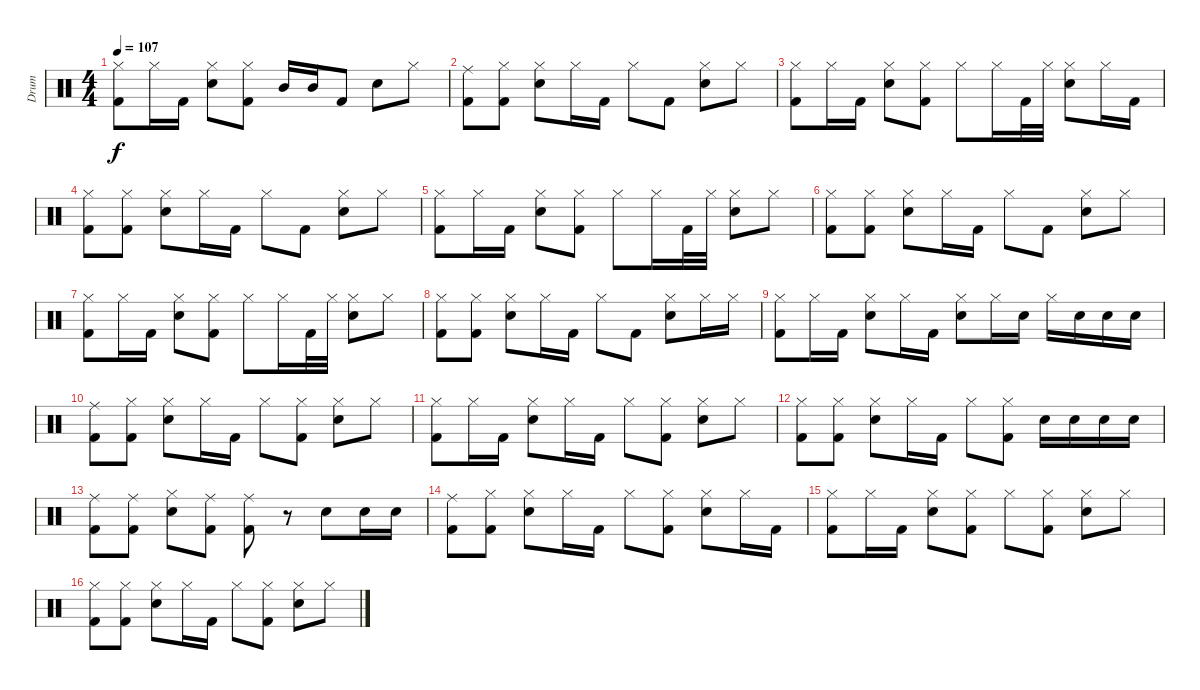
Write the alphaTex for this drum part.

\track ("Drum" "Drum") {instrument percussion}
\staff {score}
\articulation defaults
\ts (4 4)
\tempo 107
\clef neutral
\ks c
("Hi-Hat (closed)" "Kick (hit) 2").8{dy f} "Hi-Hat (closed)".16 "Kick (hit) 2".16 ("Hi-Hat (closed)" "Snare (hit) 2").8 ("Hi-Hat (closed)" "Kick (hit) 2").8 "Mid Tom (hit)".16 "Mid Tom (hit)".16 "Kick (hit) 2".8 "Snare (hit) 2".8 "Hi-Hat (closed)".8 |
("Ride (middle)" "Kick (hit) 2").8 ("Hi-Hat (closed)" "Kick (hit) 2").8 ("Hi-Hat (closed)" "Snare (hit) 2").8 "Hi-Hat (closed)".16 "Kick (hit) 2".16 "Hi-Hat (closed)".8 "Kick (hit) 2".8 ("Hi-Hat (closed)" "Snare (hit) 2").8 "Hi-Hat (closed)".8 |
("Hi-Hat (closed)" "Kick (hit) 2").8 "Hi-Hat (closed)".16 "Kick (hit) 2".16 ("Hi-Hat (closed)" "Snare (hit) 2").8 ("Hi-Hat (closed)" "Kick (hit) 2").8 "Hi-Hat (closed)".8 "Hi-Hat (closed)".16 "Kick (hit) 2".32 "Hi-Hat (closed)".32 ("Hi-Hat (closed)" "Snare (hit) 2").8 "Hi-Hat (closed)".16 "Kick (hit) 2".16 |
("Hi-Hat (closed)" "Kick (hit) 2").8 ("Hi-Hat (closed)" "Kick (hit) 2").8 ("Hi-Hat (closed)" "Snare (hit) 2").8 "Hi-Hat (closed)".16 "Kick (hit) 2".16 "Hi-Hat (closed)".8 "Kick (hit) 2".8 ("Hi-Hat (closed)" "Snare (hit) 2").8 "Hi-Hat (closed)".8 |
("Hi-Hat (closed)" "Kick (hit) 2").8 "Hi-Hat (closed)".16 "Kick (hit) 2".16 ("Hi-Hat (closed)" "Snare (hit) 2").8 ("Hi-Hat (closed)" "Kick (hit) 2").8 "Hi-Hat (closed)".8 "Hi-Hat (closed)".16 "Kick (hit) 2".32 "Hi-Hat (closed)".32 ("Hi-Hat (closed)" "Snare (hit) 2").8 "Hi-Hat (closed)".8 |
("Hi-Hat (closed)" "Kick (hit) 2").8 ("Hi-Hat (closed)" "Kick (hit) 2").8 ("Hi-Hat (closed)" "Snare (hit) 2").8 "Hi-Hat (closed)".16 "Kick (hit) 2".16 "Hi-Hat (closed)".8 "Kick (hit) 2".8 ("Hi-Hat (closed)" "Snare (hit) 2").8 "Hi-Hat (closed)".8 |
("Hi-Hat (closed)" "Kick (hit) 2").8 "Hi-Hat (closed)".16 "Kick (hit) 2".16 ("Hi-Hat (closed)" "Snare (hit) 2").8 ("Hi-Hat (closed)" "Kick (hit) 2").8 "Hi-Hat (closed)".8 "Hi-Hat (closed)".16 "Kick (hit) 2".32 "Hi-Hat (closed)".32 ("Hi-Hat (closed)" "Snare (hit) 2").8 "Hi-Hat (closed)".8 |
("Hi-Hat (closed)" "Kick (hit) 2").8 ("Hi-Hat (closed)" "Kick (hit) 2").8 ("Hi-Hat (closed)" "Snare (hit) 2").8 "Hi-Hat (closed)".16 "Kick (hit) 2".16 "Hi-Hat (closed)".8 "Kick (hit) 2".8 ("Hi-Hat (closed)" "Snare (hit) 2").8 "Hi-Hat (closed)".16 "Hi-Hat (closed)".16 |
("Hi-Hat (closed)" "Kick (hit) 2").8 "Hi-Hat (closed)".16 "Kick (hit) 2".16 ("Hi-Hat (closed)" "Snare (hit) 2").8 "Hi-Hat (closed)".16 "Kick (hit) 2".16 ("Hi-Hat (closed)" "Snare (hit) 2").8 "Hi-Hat (closed)".16 "Snare (hit) 2".16 "Hi-Hat (closed)".16 "Snare (hit) 2".16 "Snare (hit) 2".16 "Snare (hit) 2".16 |
("Ride (middle)" "Kick (hit) 2").8 ("Hi-Hat (closed)" "Kick (hit) 2").8 ("Hi-Hat (closed)" "Snare (hit) 2").8 "Hi-Hat (closed)".16 "Kick (hit) 2".16 "Hi-Hat (closed)".8 ("Hi-Hat (closed)" "Kick (hit) 2").8 ("Hi-Hat (closed)" "Snare (hit) 2").8 "Hi-Hat (closed)".8 |
("Hi-Hat (closed)" "Kick (hit) 2").8 "Hi-Hat (closed)".16 "Kick (hit) 2".16 ("Hi-Hat (closed)" "Snare (hit) 2").8 "Hi-Hat (closed)".16 "Kick (hit) 2".16 "Hi-Hat (closed)".8 ("Hi-Hat (closed)" "Kick (hit) 2").8 ("Hi-Hat (closed)" "Snare (hit) 2").8 "Hi-Hat (closed)".8 |
("Hi-Hat (closed)" "Kick (hit) 2").8 ("Hi-Hat (closed)" "Kick (hit) 2").8 ("Hi-Hat (closed)" "Snare (hit) 2").8 "Hi-Hat (closed)".16 "Kick (hit) 2".16 "Hi-Hat (closed)".8 ("Hi-Hat (closed)" "Kick (hit) 2").8 "Snare (hit) 2".16 "Snare (hit) 2".16 "Snare (hit) 2".16 "Snare (hit) 2".16 |
("Ride (middle)" "Kick (hit) 2").8 ("Ride (middle)" "Kick (hit) 2").8 ("Hi-Hat (closed)" "Snare (hit) 2").8 ("Ride (middle)" "Kick (hit) 2").8 ("Ride (middle)" "Kick (hit) 2").8 r.8 "Snare (hit) 2".8 "Snare (hit) 2".16 "Snare (hit) 2".16 |
("Ride (middle)" "Kick (hit) 2").8 ("Hi-Hat (closed)" "Kick (hit) 2").8 ("Hi-Hat (closed)" "Snare (hit) 2").8 "Hi-Hat (closed)".16 "Kick (hit) 2".16 "Hi-Hat (closed)".8 ("Hi-Hat (closed)" "Kick (hit) 2").8 ("Hi-Hat (closed)" "Snare (hit) 2").8 "Hi-Hat (closed)".16 "Kick (hit) 2".16 |
("Hi-Hat (closed)" "Kick (hit) 2").8 "Hi-Hat (closed)".16 "Kick (hit) 2".16 ("Hi-Hat (closed)" "Snare (hit) 2").8 ("Hi-Hat (closed)" "Kick (hit) 2").8 "Hi-Hat (closed)".8 ("Hi-Hat (closed)" "Kick (hit) 2").8 ("Hi-Hat (closed)" "Snare (hit) 2").8 "Hi-Hat (closed)".8 |
("Hi-Hat (closed)" "Kick (hit) 2").8 ("Hi-Hat (closed)" "Kick (hit) 2").8 ("Hi-Hat (closed)" "Snare (hit) 2").8 "Hi-Hat (closed)".16 "Kick (hit) 2".16 "Hi-Hat (closed)".8 ("Hi-Hat (closed)" "Kick (hit) 2").8 ("Hi-Hat (closed)" "Snare (hit) 2").8 "Hi-Hat (closed)".8
